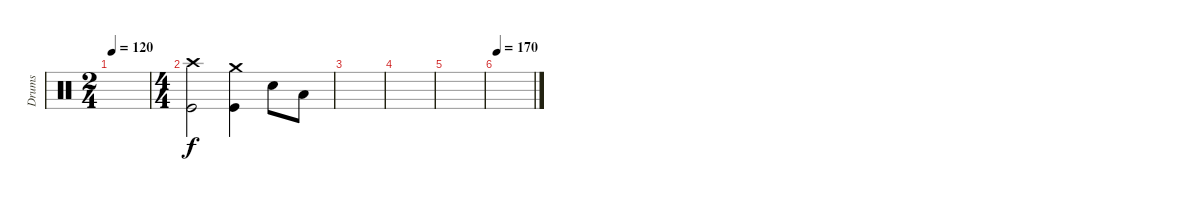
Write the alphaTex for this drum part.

\track ("Drums" "Drums") {instrument percussion}
\staff {score}
\articulation defaults
\ts (2 4)
\tempo 120
\clef neutral
\ks c
|
\ts (4 4)
("Crash high (hit)" "Kick (hit)").2 ("Crash medium (hit)" "Kick (hit)").4 "Snare (hit) 2".8 "Low Tom (hit)".8 |
|
|
|
\tempo 170
